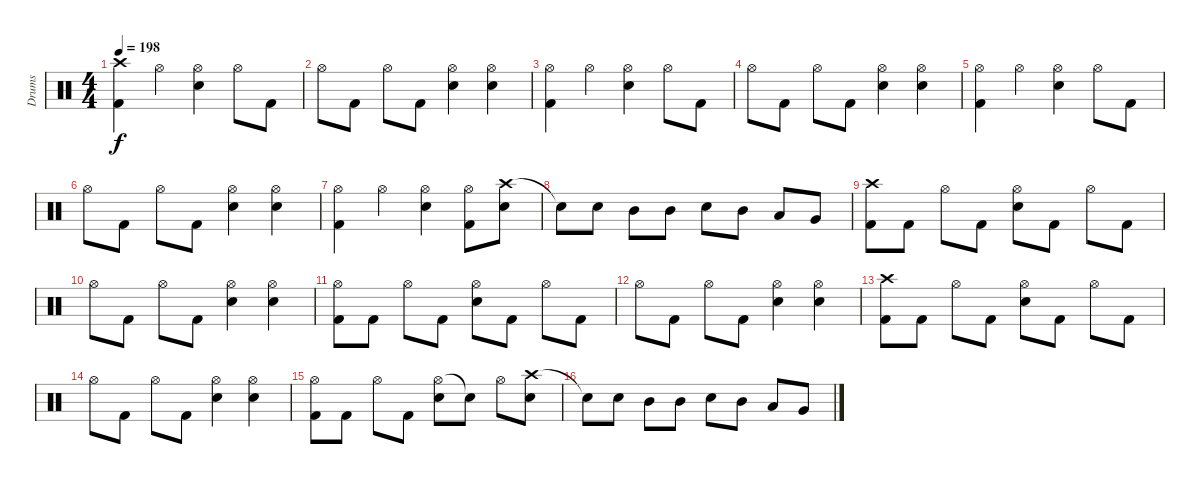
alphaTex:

\track ("Drums" "Drums") {instrument percussion}
\staff {score}
\articulation defaults
\ts (4 4)
\tempo 198
\clef neutral
\ks c
("Crash high (hit)" "Kick (hit) 2").4{dy f} "Hi-Hat (open)".4 ("Hi-Hat (open)" "Snare (hit) 2").4 "Hi-Hat (open)".8 "Kick (hit) 2".8 |
"Hi-Hat (open)".8 "Kick (hit) 2".8 "Hi-Hat (open)".8 "Kick (hit) 2".8 ("Hi-Hat (open)" "Snare (hit) 2").4 ("Hi-Hat (open)" "Snare (hit) 2").4 |
("Hi-Hat (open)" "Kick (hit) 2").4 "Hi-Hat (open)".4 ("Hi-Hat (open)" "Snare (hit) 2").4 "Hi-Hat (open)".8 "Kick (hit) 2".8 |
"Hi-Hat (open)".8 "Kick (hit) 2".8 "Hi-Hat (open)".8 "Kick (hit) 2".8 ("Hi-Hat (open)" "Snare (hit) 2").4 ("Hi-Hat (open)" "Snare (hit) 2").4 |
("Hi-Hat (open)" "Kick (hit) 2").4 "Hi-Hat (open)".4 ("Hi-Hat (open)" "Snare (hit) 2").4 "Hi-Hat (open)".8 "Kick (hit) 2".8 |
"Hi-Hat (open)".8 "Kick (hit) 2".8 "Hi-Hat (open)".8 "Kick (hit) 2".8 ("Hi-Hat (open)" "Snare (hit) 2").4 ("Hi-Hat (open)" "Snare (hit) 2").4 |
("Hi-Hat (open)" "Kick (hit) 2").4 "Hi-Hat (open)".4 ("Hi-Hat (open)" "Snare (hit) 2").4 ("Hi-Hat (open)" "Kick (hit) 2").8 ("Crash high (hit)" "Snare (hit) 2").8 |
"Snare (hit)"{t}.8 "Snare (hit) 2".8 "Mid Tom (hit)".8 "Mid Tom (hit)".8 "Snare (hit) 2".8 "Mid Tom (hit)".8 "Low Tom (hit)".8 "Very Low Tom (hit)".8 |
("Crash high (hit)" "Kick (hit) 2").8 "Kick (hit) 2".8 "Hi-Hat (open)".8 "Kick (hit) 2".8 ("Hi-Hat (open)" "Snare (hit) 2").8 "Kick (hit) 2".8 "Hi-Hat (open)".8 "Kick (hit) 2".8 |
"Hi-Hat (open)".8 "Kick (hit) 2".8 "Hi-Hat (open)".8 "Kick (hit) 2".8 ("Hi-Hat (open)" "Snare (hit) 2").4 ("Hi-Hat (open)" "Snare (hit) 2").4 |
("Hi-Hat (open)" "Kick (hit) 2").8 "Kick (hit) 2".8 "Hi-Hat (open)".8 "Kick (hit) 2".8 ("Hi-Hat (open)" "Snare (hit) 2").8 "Kick (hit) 2".8 "Hi-Hat (open)".8 "Kick (hit) 2".8 |
"Hi-Hat (open)".8 "Kick (hit) 2".8 "Hi-Hat (open)".8 "Kick (hit) 2".8 ("Hi-Hat (open)" "Snare (hit) 2").4 ("Hi-Hat (open)" "Snare (hit) 2").4 |
("Crash high (hit)" "Kick (hit) 2").8 "Kick (hit) 2".8 "Hi-Hat (open)".8 "Kick (hit) 2".8 ("Hi-Hat (open)" "Snare (hit) 2").8 "Kick (hit) 2".8 "Hi-Hat (open)".8 "Kick (hit) 2".8 |
"Hi-Hat (open)".8 "Kick (hit) 2".8 "Hi-Hat (open)".8 "Kick (hit) 2".8 ("Hi-Hat (open)" "Snare (hit) 2").4 ("Hi-Hat (open)" "Snare (hit) 2").4 |
("Hi-Hat (open)" "Kick (hit) 2").8 "Kick (hit) 2".8 "Hi-Hat (open)".8 "Kick (hit) 2".8 ("Hi-Hat (open)" "Snare (hit) 2").8 "Snare (hit)"{t}.8 "Hi-Hat (open)".8 ("Crash high (hit)" "Snare (hit) 2").8 |
"Snare (hit)"{t}.8 "Snare (hit) 2".8 "Mid Tom (hit)".8 "Mid Tom (hit)".8 "Snare (hit) 2".8 "Mid Tom (hit)".8 "Low Tom (hit)".8 "Very Low Tom (hit)".8
